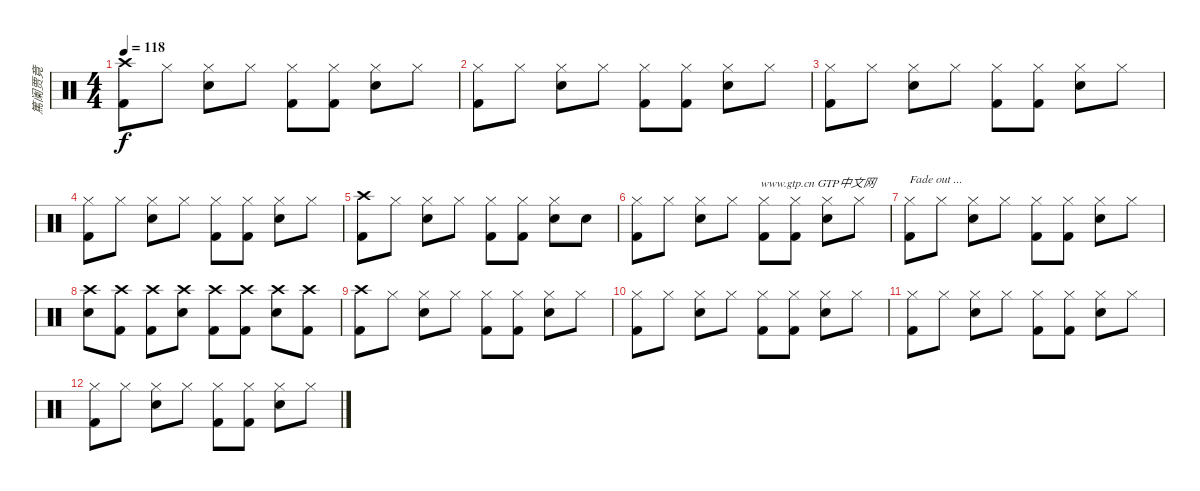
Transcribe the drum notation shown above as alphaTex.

\track ("篤阑贾竟" "篤阑贾竟") {instrument percussion}
\staff {score}
\articulation defaults
\ts (4 4)
\tempo 118
\clef neutral
\ks c
("Crash high (hit)" "Kick (hit) 2").8{dy f} "Hi-Hat (closed)".8 ("Hi-Hat (closed)" "Snare (hit) 2").8 "Hi-Hat (closed)".8 ("Hi-Hat (closed)" "Kick (hit) 2").8 ("Hi-Hat (closed)" "Kick (hit) 2").8 ("Hi-Hat (closed)" "Snare (hit) 2").8 "Hi-Hat (closed)".8 |
("Hi-Hat (closed)" "Kick (hit) 2").8 "Hi-Hat (closed)".8 ("Hi-Hat (closed)" "Snare (hit) 2").8 "Hi-Hat (closed)".8 ("Hi-Hat (closed)" "Kick (hit) 2").8 ("Hi-Hat (closed)" "Kick (hit) 2").8 ("Hi-Hat (closed)" "Snare (hit) 2").8 "Hi-Hat (closed)".8 |
("Hi-Hat (closed)" "Kick (hit) 2").8 "Hi-Hat (closed)".8 ("Hi-Hat (closed)" "Snare (hit) 2").8 "Hi-Hat (closed)".8 ("Hi-Hat (closed)" "Kick (hit) 2").8 ("Hi-Hat (closed)" "Kick (hit) 2").8 ("Hi-Hat (closed)" "Snare (hit) 2").8 "Hi-Hat (closed)".8 |
("Hi-Hat (closed)" "Kick (hit) 2").8 "Hi-Hat (closed)".8 ("Hi-Hat (closed)" "Snare (hit) 2").8 "Hi-Hat (closed)".8 ("Hi-Hat (closed)" "Kick (hit) 2").8 ("Hi-Hat (closed)" "Kick (hit) 2").8 ("Hi-Hat (closed)" "Snare (hit) 2").8 "Hi-Hat (closed)".8 |
("Crash high (hit)" "Kick (hit) 2").8 "Hi-Hat (closed)".8 ("Hi-Hat (closed)" "Snare (hit) 2").8 "Hi-Hat (closed)".8 ("Hi-Hat (closed)" "Kick (hit) 2").8 ("Hi-Hat (closed)" "Kick (hit) 2").8 ("Hi-Hat (closed)" "Snare (hit) 2").8 "Snare (hit) 2".8 |
("Hi-Hat (closed)" "Kick (hit) 2").8 "Hi-Hat (closed)".8 ("Hi-Hat (closed)" "Snare (hit) 2").8{txt "                    www.gtp.cn GTP中文网"} "Hi-Hat (closed)".8 ("Hi-Hat (closed)" "Kick (hit) 2").8 ("Hi-Hat (closed)" "Kick (hit) 2").8 ("Hi-Hat (closed)" "Snare (hit) 2").8 "Hi-Hat (closed)".8 |
("Hi-Hat (closed)" "Kick (hit) 2").8{txt "Fade out ..."} "Hi-Hat (closed)".8 ("Hi-Hat (closed)" "Snare (hit) 2").8 "Hi-Hat (closed)".8 ("Hi-Hat (closed)" "Kick (hit) 2").8 ("Hi-Hat (closed)" "Kick (hit) 2").8 ("Hi-Hat (closed)" "Snare (hit) 2").8 "Hi-Hat (closed)".8 |
("Crash high (hit)" "Snare (hit) 2").8 ("Crash high (hit)" "Kick (hit) 2").8 ("Crash high (hit)" "Kick (hit) 2").8 ("Crash high (hit)" "Snare (hit) 2").8 ("Crash high (hit)" "Kick (hit) 2").8 ("Crash high (hit)" "Kick (hit) 2").8 ("Crash high (hit)" "Snare (hit) 2").8 ("Crash high (hit)" "Kick (hit) 2").8 |
("Crash high (hit)" "Kick (hit) 2").8 "Hi-Hat (closed)".8 ("Hi-Hat (closed)" "Snare (hit) 2").8 "Hi-Hat (closed)".8 ("Hi-Hat (closed)" "Kick (hit) 2").8 ("Hi-Hat (closed)" "Kick (hit) 2").8 ("Hi-Hat (closed)" "Snare (hit) 2").8 "Hi-Hat (closed)".8 |
("Hi-Hat (closed)" "Kick (hit) 2").8 "Hi-Hat (closed)".8 ("Hi-Hat (closed)" "Snare (hit) 2").8 "Hi-Hat (closed)".8 ("Hi-Hat (closed)" "Kick (hit) 2").8 ("Hi-Hat (closed)" "Kick (hit) 2").8 ("Hi-Hat (closed)" "Snare (hit) 2").8 "Hi-Hat (closed)".8 |
("Hi-Hat (closed)" "Kick (hit) 2").8 "Hi-Hat (closed)".8 ("Hi-Hat (closed)" "Snare (hit) 2").8 "Hi-Hat (closed)".8 ("Hi-Hat (closed)" "Kick (hit) 2").8 ("Hi-Hat (closed)" "Kick (hit) 2").8 ("Hi-Hat (closed)" "Snare (hit) 2").8 "Hi-Hat (closed)".8 |
("Hi-Hat (closed)" "Kick (hit) 2").8 "Hi-Hat (closed)".8 ("Hi-Hat (closed)" "Snare (hit) 2").8 "Hi-Hat (closed)".8 ("Hi-Hat (closed)" "Kick (hit) 2").8 ("Hi-Hat (closed)" "Kick (hit) 2").8 ("Hi-Hat (closed)" "Snare (hit) 2").8 "Hi-Hat (closed)".8
